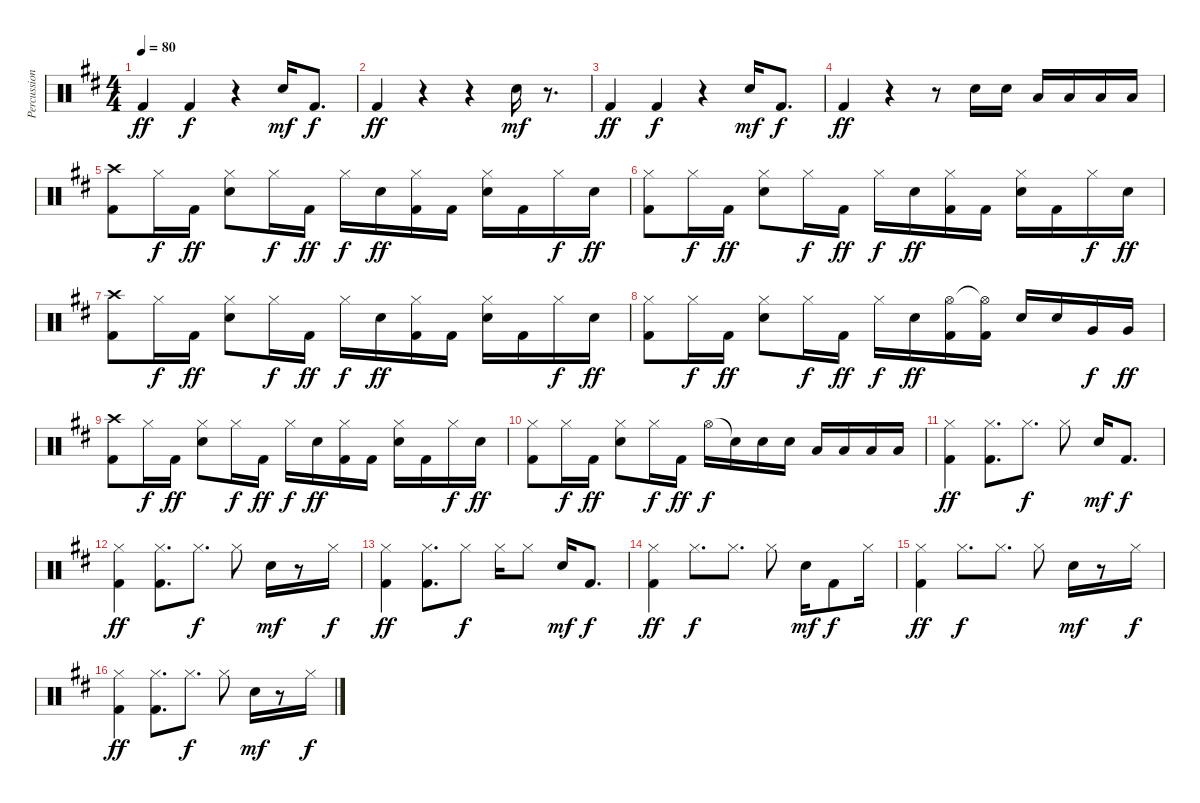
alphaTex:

\track ("Percussion" "Percussion") {instrument percussion}
\staff {score}
\articulation defaults
\ts (4 4)
\tempo 80
\clef neutral
\ks bminor "Kick (hit) 2".4{dy ff} "Kick (hit) 2".4{dy f}
r.4 "Electric Snare (hit)".16{dy mf} "Kick (hit) 2".8{d dy f} |
"Kick (hit) 2".4{dy ff} r.4 r.4 "Electric Snare (hit)".16{dy mf} r.8{d} |
"Kick (hit) 2".4{dy ff} "Kick (hit) 2".4{dy f} r.4 "Electric Snare (hit)".16{dy mf} "Kick (hit) 2".8{d dy f} |
"Kick (hit) 2".4{dy ff} r.4 r.8 "Snare (hit) 2".16 "Snare (hit) 2".16 "Low Tom (hit)".16 "Low Tom (hit)".16 "Low Floor Tom (hit)".16 "Low Floor Tom (hit)".16 |
("Crash high (hit)" "Kick (hit) 2").8{volume 16} "Hi-Hat (closed)".16{dy f} "Kick (hit) 2".16{dy ff} ("Hi-Hat (closed)" "Snare (hit) 2").8 "Hi-Hat (closed)".16{dy f} "Kick (hit) 2".16{dy ff} "Hi-Hat (closed)".16{dy f} "Snare (hit) 2".16{dy ff} ("Hi-Hat (closed)" "Kick (hit) 2").16 "Kick (hit) 2".16 ("Hi-Hat (closed)" "Snare (hit) 2").16 "Kick (hit) 2".16 "Hi-Hat (closed)".16{dy f} "Snare (hit) 2".16{dy ff} |
("Hi-Hat (closed)" "Kick (hit) 2").8 "Hi-Hat (closed)".16{dy f} "Kick (hit) 2".16{dy ff} ("Hi-Hat (closed)" "Snare (hit) 2").8 "Hi-Hat (closed)".16{dy f} "Kick (hit) 2".16{dy ff} "Hi-Hat (closed)".16{dy f} "Snare (hit) 2".16{dy ff} ("Hi-Hat (closed)" "Kick (hit) 2").16 "Kick (hit) 2".16 ("Hi-Hat (closed)" "Snare (hit) 2").16 "Kick (hit) 2".16 "Hi-Hat (closed)".16{dy f} "Snare (hit) 2".16{dy ff} |
("Crash high (hit)" "Kick (hit) 2").8 "Hi-Hat (closed)".16{dy f} "Kick (hit) 2".16{dy ff} ("Hi-Hat (closed)" "Snare (hit) 2").8 "Hi-Hat (closed)".16{dy f} "Kick (hit) 2".16{dy ff} "Hi-Hat (closed)".16{dy f} "Snare (hit) 2".16{dy ff} ("Hi-Hat (closed)" "Kick (hit) 2").16 "Kick (hit) 2".16 ("Hi-Hat (closed)" "Snare (hit) 2").16 "Kick (hit) 2".16 "Hi-Hat (closed)".16{dy f} "Snare (hit) 2".16{dy ff} |
("Hi-Hat (closed)" "Kick (hit) 2").8 "Hi-Hat (closed)".16{dy f} "Kick (hit) 2".16{dy ff} ("Hi-Hat (closed)" "Snare (hit) 2").8 "Hi-Hat (closed)".16{dy f} "Kick (hit) 2".16{dy ff} "Hi-Hat (closed)".16{dy f} "Snare (hit) 2".16{dy ff} ("Hi-Hat (open)" "Kick (hit) 2").16 ("Hi-Hat (open)"{t} "Kick (hit) 2").16 "Snare (hit) 2".16 "Snare (hit) 2".16 "Very Low Tom (hit)".16{dy f} "Very Low Tom (hit)".16{dy ff} |
("Crash high (hit)" "Kick (hit) 2").8 "Hi-Hat (closed)".16{dy f} "Kick (hit) 2".16{dy ff} ("Hi-Hat (closed)" "Snare (hit) 2").8 "Hi-Hat (closed)".16{dy f} "Kick (hit) 2".16{dy ff} "Hi-Hat (closed)".16{dy f} "Snare (hit) 2".16{dy ff} ("Hi-Hat (closed)" "Kick (hit) 2").16 "Kick (hit) 2".16 ("Hi-Hat (closed)" "Snare (hit) 2").16 "Kick (hit) 2".16 "Hi-Hat (closed)".16{dy f} "Snare (hit) 2".16{dy ff} |
("Hi-Hat (closed)" "Kick (hit) 2").8 "Hi-Hat (closed)".16{dy f} "Kick (hit) 2".16{dy ff} ("Hi-Hat (closed)" "Snare (hit) 2").8 "Hi-Hat (closed)".16{dy f} "Kick (hit) 2".16{dy ff} "Hi-Hat (open)".16{dy f} "Snare (hit)"{t}.16 "Snare (hit) 2".16 "Snare (hit) 2".16 "Low Tom (hit)".16 "Low Tom (hit)".16 "Low Floor Tom (hit)".16 "Low Floor Tom (hit)".16 |
("Hi-Hat (closed)" "Kick (hit) 2").4{dy ff volume 14} ("Hi-Hat (closed)" "Kick (hit) 2").8{d} "Hi-Hat (closed)".8{d dy f} "Hi-Hat (closed)".8 "Electric Snare (hit)".16{dy mf} "Kick (hit) 2".8{d dy f} |
("Hi-Hat (closed)" "Kick (hit) 2").4{dy ff} ("Hi-Hat (closed)" "Kick (hit) 2").8{d} "Hi-Hat (closed)".8{d dy f} "Hi-Hat (closed)".8 "Electric Snare (hit)".16{dy mf} r.8 "Hi-Hat (closed)".16{dy f} |
("Hi-Hat (closed)" "Kick (hit) 2").4{dy ff} ("Hi-Hat (closed)" "Kick (hit) 2").8{d} "Hi-Hat (closed)".8{dy f} "Hi-Hat (closed)".16 "Hi-Hat (closed)".8 "Electric Snare (hit)".16{dy mf} "Kick (hit) 2".8{d dy f} |
("Hi-Hat (closed)" "Kick (hit) 2").4{dy ff} "Hi-Hat (closed)".8{d dy f} "Hi-Hat (closed)".8{d} "Hi-Hat (closed)".8 "Electric Snare (hit)".16{dy mf} "Kick (hit) 2".8{dy f} "Hi-Hat (closed)".16 |
("Hi-Hat (closed)" "Kick (hit) 2").4{dy ff} "Hi-Hat (closed)".8{d dy f} "Hi-Hat (closed)".8{d} "Hi-Hat (closed)".8 "Electric Snare (hit)".16{dy mf} r.8 "Hi-Hat (closed)".16{dy f} |
("Hi-Hat (closed)" "Kick (hit) 2").4{dy ff} ("Hi-Hat (closed)" "Kick (hit) 2").8{d} "Hi-Hat (closed)".8{d dy f} "Hi-Hat (closed)".8 "Electric Snare (hit)".16{dy mf} r.8 "Hi-Hat (closed)".16{dy f}
